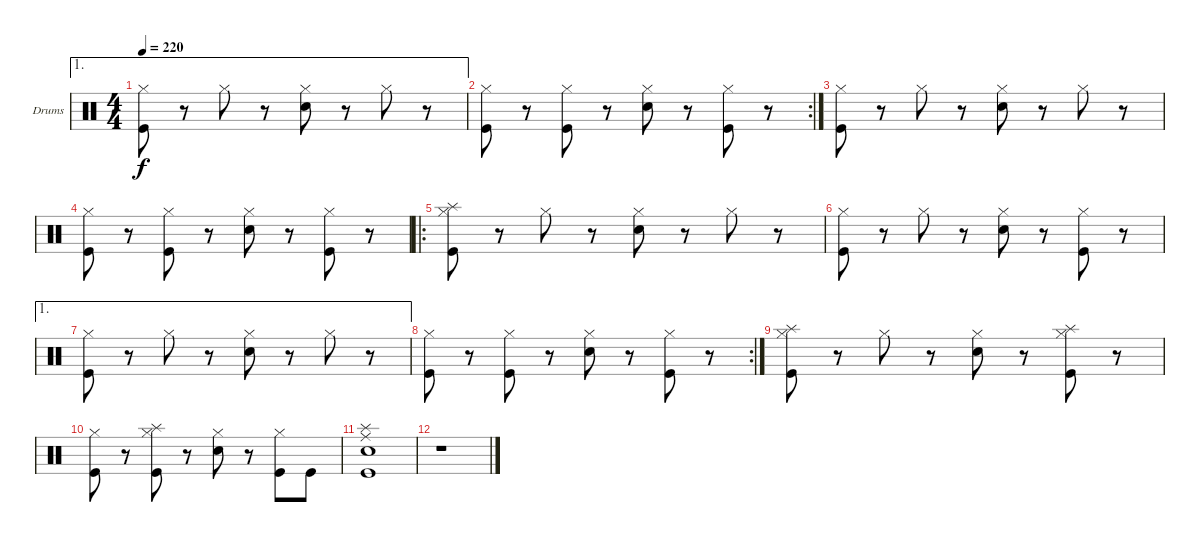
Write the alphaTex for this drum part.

\bracketExtendMode groupsimilarinstruments
\firstSystemTrackNameOrientation horizontal
\otherSystemsTrackNameOrientation horizontal
\track ("Ударные" "Drums") {instrument percussion}
\staff {score}
\articulation defaults
\ae 1
\ts (4 4)
\tempo 220
\clef neutral
\ks c
("Hi-Hat (closed)" "Kick (hit)").8{dy f} r.8 "Hi-Hat (closed)".8 r.8 ("Hi-Hat (closed)" "Snare (hit) 2").8 r.8 "Hi-Hat (closed)".8 r.8 |
\rc 2
("Hi-Hat (closed)" "Kick (hit)").8 r.8 ("Hi-Hat (closed)" "Kick (hit)").8 r.8 ("Hi-Hat (closed)" "Snare (hit) 2").8 r.8 ("Hi-Hat (closed)" "Kick (hit)").8 r.8 |
("Hi-Hat (closed)" "Kick (hit)").8 r.8 "Hi-Hat (closed)".8 r.8 ("Hi-Hat (closed)" "Snare (hit) 2").8 r.8 "Hi-Hat (closed)".8 r.8 |
("Hi-Hat (closed)" "Kick (hit)").8 r.8 ("Hi-Hat (closed)" "Kick (hit)").8 r.8 ("Hi-Hat (closed)" "Snare (hit) 2").8 r.8 ("Hi-Hat (closed)" "Kick (hit)").8 r.8 |
\ro
("Hi-Hat (closed)" "Splash (hit)" "Kick (hit)").8 r.8 "Hi-Hat (closed)".8 r.8 ("Hi-Hat (closed)" "Snare (hit) 2").8 r.8 "Hi-Hat (closed)".8 r.8 |
("Hi-Hat (closed)" "Kick (hit)").8 r.8 "Hi-Hat (closed)".8 r.8 ("Hi-Hat (closed)" "Snare (hit) 2").8 r.8 ("Hi-Hat (closed)" "Kick (hit)").8 r.8 |
\ae 1
("Hi-Hat (closed)" "Kick (hit)").8 r.8 "Hi-Hat (closed)".8 r.8 ("Hi-Hat (closed)" "Snare (hit) 2").8 r.8 "Hi-Hat (closed)".8 r.8 |
\rc 2
("Hi-Hat (closed)" "Kick (hit)").8 r.8 ("Hi-Hat (closed)" "Kick (hit)").8 r.8 ("Hi-Hat (closed)" "Snare (hit) 2").8 r.8 ("Hi-Hat (closed)" "Kick (hit)").8 r.8 |
("Hi-Hat (closed)" "Splash (hit)" "Kick (hit)").8 r.8 "Hi-Hat (closed)".8 r.8 ("Hi-Hat (closed)" "Snare (hit) 2").8 r.8 ("Hi-Hat (closed)" "Splash (hit)" "Kick (hit)").8 r.8 |
("Hi-Hat (closed)" "Kick (hit)").8 r.8 ("Hi-Hat (closed)" "Splash (hit)" "Kick (hit)").8 r.8 ("Hi-Hat (closed)" "Snare (hit) 2").8 r.8 ("Hi-Hat (closed)" "Kick (hit)").8 "Kick (hit)".8 |
("Ride (middle)" "Splash (hit)" "Kick (hit)" "Snare (hit) 2").1 |
r.1
